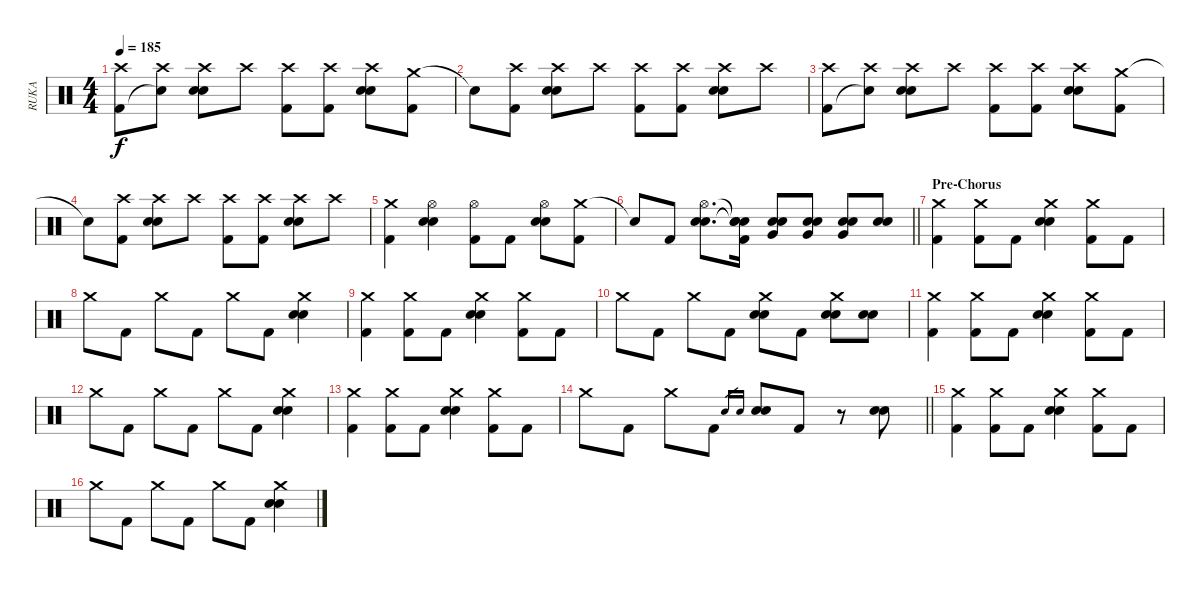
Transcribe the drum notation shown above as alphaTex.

\track ("RUKA" "RUKA") {instrument percussion}
\staff {score}
\articulation defaults
\ts (4 4)
\tempo 185
\clef neutral
\ks c
("Crash high (hit)" "Kick (hit) 2").8{dy f} ("Crash high (hit)" "Snare (hit)"{t}).8 ("Crash high (hit)" "Snare (hit) 2" "Electric Snare (hit)").8 "Crash high (hit)".8 ("Crash high (hit)" "Kick (hit) 2").8 ("Crash high (hit)" "Kick (hit) 2").8 ("Crash high (hit)" "Snare (hit) 2" "Electric Snare (hit)").8 ("Crash medium (hit)" "Kick (hit) 2").8 |
"Snare (hit)"{t}.8 ("Crash high (hit)" "Kick (hit) 2").8 ("Crash high (hit)" "Snare (hit) 2" "Electric Snare (hit)").8 "Crash high (hit)".8 ("Crash high (hit)" "Kick (hit) 2").8 ("Crash high (hit)" "Kick (hit) 2").8 ("Crash high (hit)" "Snare (hit) 2" "Electric Snare (hit)").8 "Crash high (hit)".8 |
("Crash high (hit)" "Kick (hit) 2").8 ("Crash high (hit)" "Snare (hit)"{t}).8 ("Crash high (hit)" "Snare (hit) 2" "Electric Snare (hit)").8 "Crash high (hit)".8 ("Crash high (hit)" "Kick (hit) 2").8 ("Crash high (hit)" "Kick (hit) 2").8 ("Crash high (hit)" "Snare (hit) 2" "Electric Snare (hit)").8 ("Crash medium (hit)" "Kick (hit) 2").8 |
"Snare (hit)"{t}.8 ("Crash high (hit)" "Kick (hit) 2").8 ("Crash high (hit)" "Snare (hit) 2" "Electric Snare (hit)").8 "Crash high (hit)".8 ("Crash high (hit)" "Kick (hit) 2").8 ("Crash high (hit)" "Kick (hit) 2").8 ("Crash high (hit)" "Snare (hit) 2" "Electric Snare (hit)").8 "Crash high (hit)".8 |
("Crash medium (hit)" "Kick (hit) 2").4 ("Hi-Hat (open)" "Snare (hit) 2" "Electric Snare (hit)").4 ("Hi-Hat (open)" "Kick (hit) 2").8 "Kick (hit) 2".8 ("Hi-Hat (open)" "Snare (hit) 2" "Electric Snare (hit)").8 ("Crash medium (hit)" "Kick (hit) 2").8 |
\barLineRight lightlight "Snare (hit)"{t}.8 "Kick (hit) 2".8
("Hi-Hat (open)" "Snare (hit) 2" "Electric Snare (hit)").8{d} ("Snare (hit)"{t} "Snare (hit)"{t} "Snare (hit)"{t} "Kick (hit) 2").16 ("Very Low Tom (hit)" "Snare (hit) 2" "Electric Snare (hit)").8 ("Very Low Tom (hit)" "Snare (hit) 2" "Electric Snare (hit)").8 ("Very Low Tom (hit)" "Snare (hit) 2" "Electric Snare (hit)").8 ("Snare (hit) 2" "Electric Snare (hit)").8 |
\section ("" "Pre-Chorus")
("Crash medium (hit)" "Kick (hit) 2").4 ("Crash medium (hit)" "Kick (hit) 2").8 "Kick (hit) 2".8 ("Crash medium (hit)" "Snare (hit) 2" "Electric Snare (hit)").4 ("Crash medium (hit)" "Kick (hit) 2").8 "Kick (hit) 2".8 |
"Crash medium (hit)".8 "Kick (hit) 2".8 "Crash medium (hit)".8 "Kick (hit) 2".8 "Crash medium (hit)".8 "Kick (hit) 2".8 ("Crash medium (hit)" "Snare (hit) 2" "Electric Snare (hit)").4 |
("Crash medium (hit)" "Kick (hit) 2").4 ("Crash medium (hit)" "Kick (hit) 2").8 "Kick (hit) 2".8 ("Crash medium (hit)" "Snare (hit) 2" "Electric Snare (hit)").4 ("Crash medium (hit)" "Kick (hit) 2").8 "Kick (hit) 2".8 |
"Crash medium (hit)".8 "Kick (hit) 2".8 "Crash medium (hit)".8 "Kick (hit) 2".8 ("Crash medium (hit)" "Snare (hit) 2" "Electric Snare (hit)").8 "Kick (hit) 2".8 ("Crash medium (hit)" "Snare (hit) 2" "Electric Snare (hit)").8 ("Snare (hit) 2" "Electric Snare (hit)").8 |
("Crash medium (hit)" "Kick (hit) 2").4 ("Crash medium (hit)" "Kick (hit) 2").8 "Kick (hit) 2".8 ("Crash medium (hit)" "Snare (hit) 2" "Electric Snare (hit)").4 ("Crash medium (hit)" "Kick (hit) 2").8 "Kick (hit) 2".8 |
"Crash medium (hit)".8 "Kick (hit) 2".8 "Crash medium (hit)".8 "Kick (hit) 2".8 "Crash medium (hit)".8 "Kick (hit) 2".8 ("Crash medium (hit)" "Snare (hit) 2" "Electric Snare (hit)").4 |
("Crash medium (hit)" "Kick (hit) 2").4 ("Crash medium (hit)" "Kick (hit) 2").8 "Kick (hit) 2".8 ("Crash medium (hit)" "Snare (hit) 2" "Electric Snare (hit)").4 ("Crash medium (hit)" "Kick (hit) 2").8 "Kick (hit) 2".8 |
\barLineRight lightlight "Crash medium (hit)".8 "Kick (hit) 2".8 "Crash medium (hit)".8 "Kick (hit) 2".8 "Snare (hit) 2".16{gr} "Electric Snare (hit)".16{gr}
("Snare (hit) 2" "Electric Snare (hit)").8 "Kick (hit) 2".8 r.8 ("Snare (hit) 2" "Electric Snare (hit)").8 |
("Crash medium (hit)" "Kick (hit) 2").4 ("Crash medium (hit)" "Kick (hit) 2").8 "Kick (hit) 2".8 ("Crash medium (hit)" "Snare (hit) 2" "Electric Snare (hit)").4 ("Crash medium (hit)" "Kick (hit) 2").8 "Kick (hit) 2".8 |
"Crash medium (hit)".8 "Kick (hit) 2".8 "Crash medium (hit)".8 "Kick (hit) 2".8 "Crash medium (hit)".8 "Kick (hit) 2".8 ("Crash medium (hit)" "Snare (hit) 2" "Electric Snare (hit)").4
